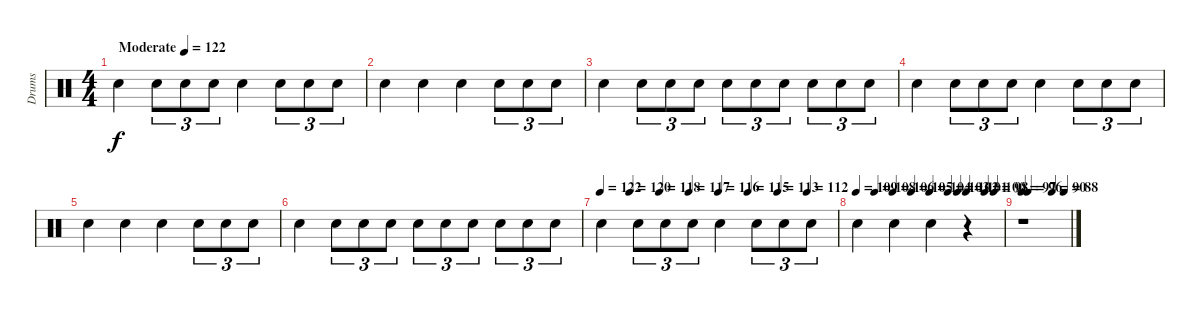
\track ("Drums" "Drums") {instrument percussion}
\staff {score}
\articulation defaults
\ts (4 4)
\tempo (122 "Moderate")
\clef neutral
\ks c "Snare (hit) 2".4{dy f} "Snare (hit) 2".8{tu (3 2)} "Snare (hit) 2".8{tu (3 2)} "Snare (hit) 2".8{tu (3 2)} "Snare (hit) 2".4 "Snare (hit) 2".8{tu (3 2)} "Snare (hit) 2".8{tu (3 2)} "Snare (hit) 2".8{tu (3 2)}
|
"Snare (hit) 2".4 "Snare (hit) 2".4 "Snare (hit) 2".4 "Snare (hit) 2".8{tu (3 2)} "Snare (hit) 2".8{tu (3 2)} "Snare (hit) 2".8{tu (3 2)} |
"Snare (hit) 2".4 "Snare (hit) 2".8{tu (3 2)} "Snare (hit) 2".8{tu (3 2)} "Snare (hit) 2".8{tu (3 2)} "Snare (hit) 2".8{tu (3 2)} "Snare (hit) 2".8{tu (3 2)} "Snare (hit) 2".8{tu (3 2)} "Snare (hit) 2".8{tu (3 2)} "Snare (hit) 2".8{tu (3 2)} "Snare (hit) 2".8{tu (3 2)} |
"Snare (hit) 2".4 "Snare (hit) 2".8{tu (3 2)} "Snare (hit) 2".8{tu (3 2)} "Snare (hit) 2".8{tu (3 2)} "Snare (hit) 2".4 "Snare (hit) 2".8{tu (3 2)} "Snare (hit) 2".8{tu (3 2)} "Snare (hit) 2".8{tu (3 2)} |
"Snare (hit) 2".4 "Snare (hit) 2".4 "Snare (hit) 2".4 "Snare (hit) 2".8{tu (3 2)} "Snare (hit) 2".8{tu (3 2)} "Snare (hit) 2".8{tu (3 2)} |
"Snare (hit) 2".4 "Snare (hit) 2".8{tu (3 2)} "Snare (hit) 2".8{tu (3 2)} "Snare (hit) 2".8{tu (3 2)} "Snare (hit) 2".8{tu (3 2)} "Snare (hit) 2".8{tu (3 2)} "Snare (hit) 2".8{tu (3 2)} "Snare (hit) 2".8{tu (3 2)} "Snare (hit) 2".8{tu (3 2)} "Snare (hit) 2".8{tu (3 2)} |
\tempo 122
\tempo (120 0.125)
\tempo (118 0.25)
\tempo (117 0.375)
\tempo (116 0.5)
\tempo (115 0.625)
\tempo (113 0.75)
\tempo (112 0.875)
"Snare (hit) 2".4 "Snare (hit) 2".8{tu (3 2)} "Snare (hit) 2".8{tu (3 2)} "Snare (hit) 2".8{tu (3 2)} "Snare (hit) 2".4 "Snare (hit) 2".8{tu (3 2)} "Snare (hit) 2".8{tu (3 2)} "Snare (hit) 2".8{tu (3 2)} |
\tempo 109
\tempo (108 0.125)
\tempo (106 0.25)
\tempo (105 0.375)
\tempo (104 0.5)
\tempo (103 0.625)
\tempo (102 0.6875)
\tempo (101 0.75)
\tempo (100 0.875)
\tempo (98 0.9375)
"Snare (hit) 2".4 "Snare (hit) 2".4 "Snare (hit) 2".4 r.4 |
\tempo 97
\tempo (96 0.125)
\tempo (90 0.625)
\tempo (88 0.875)
r.1
